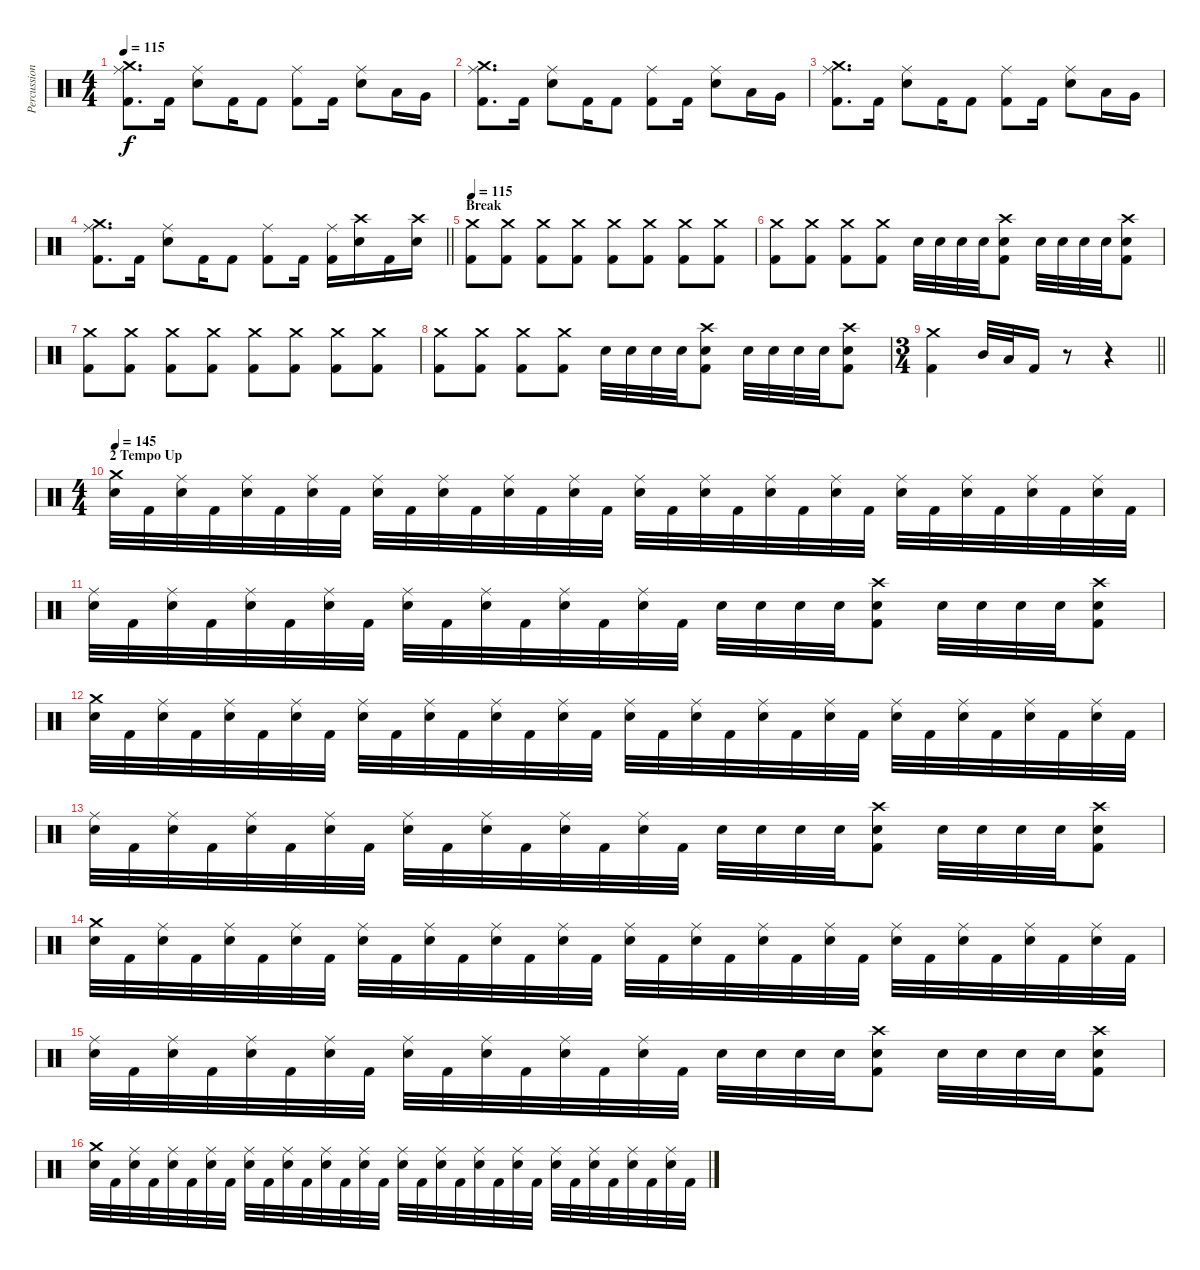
\track ("Percussion" "Percussion") {instrument percussion}
\staff {score}
\articulation defaults
\ts (4 4)
\tempo 115
\clef neutral
\ks c
("Crash medium (hit)" "Ride (middle)" "Kick (hit) 2").8{d dy f} "Kick (hit) 2".16 ("Ride (middle)" "Electric Snare (hit)").8 "Kick (hit) 2".16 "Kick (hit) 2".8 ("Ride (middle)" "Kick (hit) 2").8 "Kick (hit) 2".16 ("Ride (middle)" "Electric Snare (hit)").8 "Low Tom (hit)".16 "Very Low Tom (hit)".16 |
("Crash medium (hit)" "Ride (middle)" "Kick (hit) 2").8{d} "Kick (hit) 2".16 ("Ride (middle)" "Electric Snare (hit)").8 "Kick (hit) 2".16 "Kick (hit) 2".8 ("Ride (middle)" "Kick (hit) 2").8 "Kick (hit) 2".16 ("Ride (middle)" "Electric Snare (hit)").8 "Low Tom (hit)".16 "Very Low Tom (hit)".16 |
("Crash medium (hit)" "Ride (middle)" "Kick (hit) 2").8{d} "Kick (hit) 2".16 ("Ride (middle)" "Electric Snare (hit)").8 "Kick (hit) 2".16 "Kick (hit) 2".8 ("Ride (middle)" "Kick (hit) 2").8 "Kick (hit) 2".16 ("Ride (middle)" "Electric Snare (hit)").8 "Low Tom (hit)".16 "Very Low Tom (hit)".16 |
\barLineRight lightlight
("Crash medium (hit)" "Ride (middle)" "Kick (hit) 2").8{d} "Kick (hit) 2".16 ("Ride (middle)" "Electric Snare (hit)").8 "Kick (hit) 2".16 "Kick (hit) 2".8 ("Ride (middle)" "Kick (hit) 2").8 "Kick (hit) 2".16 ("Ride (middle)" "Kick (hit) 2").16 ("Crash high (hit)" "Electric Snare (hit)").16 "Kick (hit) 2".16 ("Crash high (hit)" "Electric Snare (hit)").16 |
\section ("" "Break")
\tempo 115
("Crash medium (hit)" "Kick (hit) 2").8 ("Crash medium (hit)" "Kick (hit) 2").8 ("Crash medium (hit)" "Kick (hit) 2").8 ("Crash medium (hit)" "Kick (hit) 2").8 ("Crash medium (hit)" "Kick (hit) 2").8 ("Crash medium (hit)" "Kick (hit) 2").8 ("Crash medium (hit)" "Kick (hit) 2").8 ("Crash medium (hit)" "Kick (hit) 2").8 |
("Crash medium (hit)" "Kick (hit) 2").8 ("Crash medium (hit)" "Kick (hit) 2").8 ("Crash medium (hit)" "Kick (hit) 2").8 ("Crash medium (hit)" "Kick (hit) 2").8 "Electric Snare (hit)".32 "Electric Snare (hit)".32 "Electric Snare (hit)".32 "Electric Snare (hit)".32 ("Crash high (hit)" "Electric Snare (hit)" "Kick (hit) 2").8 "Electric Snare (hit)".32 "Electric Snare (hit)".32 "Electric Snare (hit)".32 "Electric Snare (hit)".32 ("Crash high (hit)" "Electric Snare (hit)" "Kick (hit) 2").8 |
("Crash medium (hit)" "Kick (hit) 2").8 ("Crash medium (hit)" "Kick (hit) 2").8 ("Crash medium (hit)" "Kick (hit) 2").8 ("Crash medium (hit)" "Kick (hit) 2").8 ("Crash medium (hit)" "Kick (hit) 2").8 ("Crash medium (hit)" "Kick (hit) 2").8 ("Crash medium (hit)" "Kick (hit) 2").8 ("Crash medium (hit)" "Kick (hit) 2").8 |
("Crash medium (hit)" "Kick (hit) 2").8 ("Crash medium (hit)" "Kick (hit) 2").8 ("Crash medium (hit)" "Kick (hit) 2").8 ("Crash medium (hit)" "Kick (hit) 2").8 "Electric Snare (hit)".32 "Electric Snare (hit)".32 "Electric Snare (hit)".32 "Electric Snare (hit)".32 ("Crash high (hit)" "Electric Snare (hit)" "Kick (hit) 2").8 "Electric Snare (hit)".32 "Electric Snare (hit)".32 "Electric Snare (hit)".32 "Electric Snare (hit)".32 ("Crash high (hit)" "Electric Snare (hit)" "Kick (hit) 2").8 |
\ts (3 4)
\barLineRight lightlight
("Crash medium (hit)" "Kick (hit) 2").4 "Mid Tom (hit)".32 "Low Tom (hit)".32 "Kick (hit) 2".16 r.8 r.4 |
\ts (4 4)
\section ("" "2 Tempo Up")
\tempo 145
("Crash medium (hit)" "Electric Snare (hit)").32 "Kick (hit) 2".32 ("Ride (middle)" "Electric Snare (hit)").32 "Kick (hit) 2".32 ("Ride (middle)" "Electric Snare (hit)").32 "Kick (hit) 2".32 ("Ride (middle)" "Electric Snare (hit)").32 "Kick (hit) 2".32 ("Ride (middle)" "Electric Snare (hit)").32 "Kick (hit) 2".32 ("Ride (middle)" "Electric Snare (hit)").32 "Kick (hit) 2".32 ("Ride (middle)" "Electric Snare (hit)").32 "Kick (hit) 2".32 ("Ride (middle)" "Electric Snare (hit)").32 "Kick (hit) 2".32 ("Ride (middle)" "Electric Snare (hit)").32 "Kick (hit) 2".32 ("Ride (middle)" "Electric Snare (hit)").32 "Kick (hit) 2".32 ("Ride (middle)" "Electric Snare (hit)").32 "Kick (hit) 2".32 ("Ride (middle)" "Electric Snare (hit)").32 "Kick (hit) 2".32 ("Ride (middle)" "Electric Snare (hit)").32 "Kick (hit) 2".32 ("Ride (middle)" "Electric Snare (hit)").32 "Kick (hit) 2".32 ("Ride (middle)" "Electric Snare (hit)").32 "Kick (hit) 2".32 ("Ride (middle)" "Electric Snare (hit)").32 "Kick (hit) 2".32 |
("Ride (middle)" "Electric Snare (hit)").32 "Kick (hit) 2".32 ("Ride (middle)" "Electric Snare (hit)").32 "Kick (hit) 2".32 ("Ride (middle)" "Electric Snare (hit)").32 "Kick (hit) 2".32 ("Ride (middle)" "Electric Snare (hit)").32 "Kick (hit) 2".32 ("Ride (middle)" "Electric Snare (hit)").32 "Kick (hit) 2".32 ("Ride (middle)" "Electric Snare (hit)").32 "Kick (hit) 2".32 ("Ride (middle)" "Electric Snare (hit)").32 "Kick (hit) 2".32 ("Ride (middle)" "Electric Snare (hit)").32 "Kick (hit) 2".32 "Electric Snare (hit)".32 "Electric Snare (hit)".32 "Electric Snare (hit)".32 "Electric Snare (hit)".32 ("Crash high (hit)" "Electric Snare (hit)" "Kick (hit) 2").8 "Electric Snare (hit)".32 "Electric Snare (hit)".32 "Electric Snare (hit)".32 "Electric Snare (hit)".32 ("Crash high (hit)" "Electric Snare (hit)" "Kick (hit) 2").8 |
("Crash medium (hit)" "Electric Snare (hit)").32 "Kick (hit) 2".32 ("Ride (middle)" "Electric Snare (hit)").32 "Kick (hit) 2".32 ("Ride (middle)" "Electric Snare (hit)").32 "Kick (hit) 2".32 ("Ride (middle)" "Electric Snare (hit)").32 "Kick (hit) 2".32 ("Ride (middle)" "Electric Snare (hit)").32 "Kick (hit) 2".32 ("Ride (middle)" "Electric Snare (hit)").32 "Kick (hit) 2".32 ("Ride (middle)" "Electric Snare (hit)").32 "Kick (hit) 2".32 ("Ride (middle)" "Electric Snare (hit)").32 "Kick (hit) 2".32 ("Ride (middle)" "Electric Snare (hit)").32 "Kick (hit) 2".32 ("Ride (middle)" "Electric Snare (hit)").32 "Kick (hit) 2".32 ("Ride (middle)" "Electric Snare (hit)").32 "Kick (hit) 2".32 ("Ride (middle)" "Electric Snare (hit)").32 "Kick (hit) 2".32 ("Ride (middle)" "Electric Snare (hit)").32 "Kick (hit) 2".32 ("Ride (middle)" "Electric Snare (hit)").32 "Kick (hit) 2".32 ("Ride (middle)" "Electric Snare (hit)").32 "Kick (hit) 2".32 ("Ride (middle)" "Electric Snare (hit)").32 "Kick (hit) 2".32 |
("Ride (middle)" "Electric Snare (hit)").32 "Kick (hit) 2".32 ("Ride (middle)" "Electric Snare (hit)").32 "Kick (hit) 2".32 ("Ride (middle)" "Electric Snare (hit)").32 "Kick (hit) 2".32 ("Ride (middle)" "Electric Snare (hit)").32 "Kick (hit) 2".32 ("Ride (middle)" "Electric Snare (hit)").32 "Kick (hit) 2".32 ("Ride (middle)" "Electric Snare (hit)").32 "Kick (hit) 2".32 ("Ride (middle)" "Electric Snare (hit)").32 "Kick (hit) 2".32 ("Ride (middle)" "Electric Snare (hit)").32 "Kick (hit) 2".32 "Electric Snare (hit)".32 "Electric Snare (hit)".32 "Electric Snare (hit)".32 "Electric Snare (hit)".32 ("Crash high (hit)" "Electric Snare (hit)" "Kick (hit) 2").8 "Electric Snare (hit)".32 "Electric Snare (hit)".32 "Electric Snare (hit)".32 "Electric Snare (hit)".32 ("Crash high (hit)" "Electric Snare (hit)" "Kick (hit) 2").8 |
("Crash medium (hit)" "Electric Snare (hit)").32 "Kick (hit) 2".32 ("Ride (middle)" "Electric Snare (hit)").32 "Kick (hit) 2".32 ("Ride (middle)" "Electric Snare (hit)").32 "Kick (hit) 2".32 ("Ride (middle)" "Electric Snare (hit)").32 "Kick (hit) 2".32 ("Ride (middle)" "Electric Snare (hit)").32 "Kick (hit) 2".32 ("Ride (middle)" "Electric Snare (hit)").32 "Kick (hit) 2".32 ("Ride (middle)" "Electric Snare (hit)").32 "Kick (hit) 2".32 ("Ride (middle)" "Electric Snare (hit)").32 "Kick (hit) 2".32 ("Ride (middle)" "Electric Snare (hit)").32 "Kick (hit) 2".32 ("Ride (middle)" "Electric Snare (hit)").32 "Kick (hit) 2".32 ("Ride (middle)" "Electric Snare (hit)").32 "Kick (hit) 2".32 ("Ride (middle)" "Electric Snare (hit)").32 "Kick (hit) 2".32 ("Ride (middle)" "Electric Snare (hit)").32 "Kick (hit) 2".32 ("Ride (middle)" "Electric Snare (hit)").32 "Kick (hit) 2".32 ("Ride (middle)" "Electric Snare (hit)").32 "Kick (hit) 2".32 ("Ride (middle)" "Electric Snare (hit)").32 "Kick (hit) 2".32 |
("Ride (middle)" "Electric Snare (hit)").32 "Kick (hit) 2".32 ("Ride (middle)" "Electric Snare (hit)").32 "Kick (hit) 2".32 ("Ride (middle)" "Electric Snare (hit)").32 "Kick (hit) 2".32 ("Ride (middle)" "Electric Snare (hit)").32 "Kick (hit) 2".32 ("Ride (middle)" "Electric Snare (hit)").32 "Kick (hit) 2".32 ("Ride (middle)" "Electric Snare (hit)").32 "Kick (hit) 2".32 ("Ride (middle)" "Electric Snare (hit)").32 "Kick (hit) 2".32 ("Ride (middle)" "Electric Snare (hit)").32 "Kick (hit) 2".32 "Electric Snare (hit)".32 "Electric Snare (hit)".32 "Electric Snare (hit)".32 "Electric Snare (hit)".32 ("Crash high (hit)" "Electric Snare (hit)" "Kick (hit) 2").8 "Electric Snare (hit)".32 "Electric Snare (hit)".32 "Electric Snare (hit)".32 "Electric Snare (hit)".32 ("Crash high (hit)" "Electric Snare (hit)" "Kick (hit) 2").8 |
("Crash medium (hit)" "Electric Snare (hit)").32 "Kick (hit) 2".32 ("Ride (middle)" "Electric Snare (hit)").32 "Kick (hit) 2".32 ("Ride (middle)" "Electric Snare (hit)").32 "Kick (hit) 2".32 ("Ride (middle)" "Electric Snare (hit)").32 "Kick (hit) 2".32 ("Ride (middle)" "Electric Snare (hit)").32 "Kick (hit) 2".32 ("Ride (middle)" "Electric Snare (hit)").32 "Kick (hit) 2".32 ("Ride (middle)" "Electric Snare (hit)").32 "Kick (hit) 2".32 ("Ride (middle)" "Electric Snare (hit)").32 "Kick (hit) 2".32 ("Ride (middle)" "Electric Snare (hit)").32 "Kick (hit) 2".32 ("Ride (middle)" "Electric Snare (hit)").32 "Kick (hit) 2".32 ("Ride (middle)" "Electric Snare (hit)").32 "Kick (hit) 2".32 ("Ride (middle)" "Electric Snare (hit)").32 "Kick (hit) 2".32 ("Ride (middle)" "Electric Snare (hit)").32 "Kick (hit) 2".32 ("Ride (middle)" "Electric Snare (hit)").32 "Kick (hit) 2".32 ("Ride (middle)" "Electric Snare (hit)").32 "Kick (hit) 2".32 ("Ride (middle)" "Electric Snare (hit)").32 "Kick (hit) 2".32
